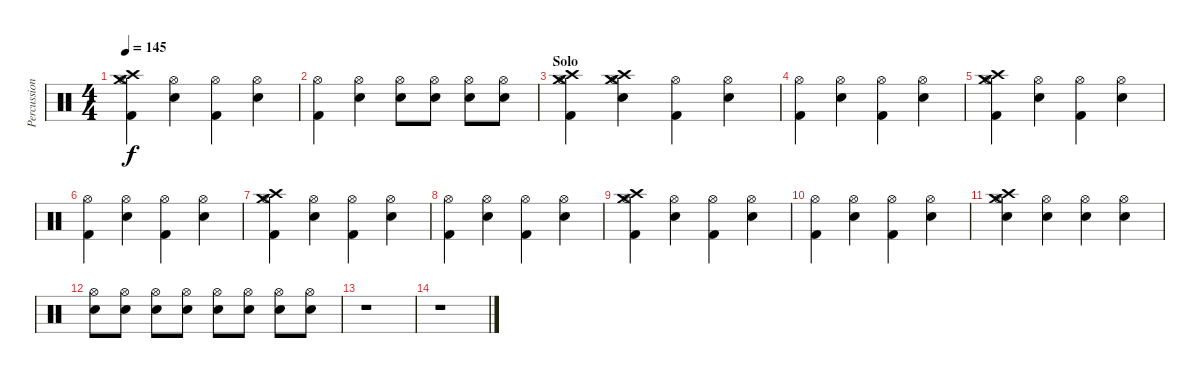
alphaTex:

\track ("Percussions" "Percussion") {instrument percussion}
\staff {score}
\articulation defaults
\ts (4 4)
\tempo 145
\clef neutral
\ks c
("Kick (hit) 2" "Hi-Hat (open)" "Crash medium (hit)" "Crash high (hit)").4{dy f} ("Snare (hit) 2" "Hi-Hat (open)").4 ("Kick (hit) 2" "Hi-Hat (open)").4 ("Snare (hit) 2" "Hi-Hat (open)").4 |
("Kick (hit) 2" "Hi-Hat (open)").4 ("Snare (hit) 2" "Hi-Hat (open)").4 ("Snare (hit) 2" "Hi-Hat (open)").8 ("Snare (hit) 2" "Hi-Hat (open)").8 ("Snare (hit) 2" "Hi-Hat (open)").8 ("Snare (hit) 2" "Hi-Hat (open)").8 |
\section ("" "Solo")
("Kick (hit) 2" "Hi-Hat (open)" "Crash medium (hit)" "Crash high (hit)").4 ("Snare (hit) 2" "Hi-Hat (open)" "Crash medium (hit)" "Crash high (hit)").4 ("Kick (hit) 2" "Hi-Hat (open)").4 ("Snare (hit) 2" "Hi-Hat (open)").4 |
("Kick (hit) 2" "Hi-Hat (open)").4 ("Snare (hit) 2" "Hi-Hat (open)").4 ("Kick (hit) 2" "Hi-Hat (open)").4 ("Snare (hit) 2" "Hi-Hat (open)").4 |
("Kick (hit) 2" "Hi-Hat (open)" "Crash medium (hit)" "Crash high (hit)").4 ("Snare (hit) 2" "Hi-Hat (open)").4 ("Kick (hit) 2" "Hi-Hat (open)").4 ("Snare (hit) 2" "Hi-Hat (open)").4 |
("Kick (hit) 2" "Hi-Hat (open)").4 ("Snare (hit) 2" "Hi-Hat (open)").4 ("Kick (hit) 2" "Hi-Hat (open)").4 ("Snare (hit) 2" "Hi-Hat (open)").4 |
("Kick (hit) 2" "Hi-Hat (open)" "Crash medium (hit)" "Crash high (hit)").4 ("Snare (hit) 2" "Hi-Hat (open)").4 ("Kick (hit) 2" "Hi-Hat (open)").4 ("Snare (hit) 2" "Hi-Hat (open)").4 |
("Kick (hit) 2" "Hi-Hat (open)").4 ("Snare (hit) 2" "Hi-Hat (open)").4 ("Kick (hit) 2" "Hi-Hat (open)").4 ("Snare (hit) 2" "Hi-Hat (open)").4 |
("Kick (hit) 2" "Hi-Hat (open)" "Crash medium (hit)" "Crash high (hit)").4 ("Snare (hit) 2" "Hi-Hat (open)").4 ("Kick (hit) 2" "Hi-Hat (open)").4 ("Snare (hit) 2" "Hi-Hat (open)").4 |
("Kick (hit) 2" "Hi-Hat (open)").4 ("Snare (hit) 2" "Hi-Hat (open)").4 ("Kick (hit) 2" "Hi-Hat (open)").4 ("Snare (hit) 2" "Hi-Hat (open)").4 |
("Snare (hit) 2" "Hi-Hat (open)" "Crash medium (hit)" "Crash high (hit)").4 ("Snare (hit) 2" "Hi-Hat (open)").4 ("Snare (hit) 2" "Hi-Hat (open)").4 ("Snare (hit) 2" "Hi-Hat (open)").4 |
("Snare (hit) 2" "Hi-Hat (open)").8 ("Snare (hit) 2" "Hi-Hat (open)").8 ("Snare (hit) 2" "Hi-Hat (open)").8 ("Snare (hit) 2" "Hi-Hat (open)").8 ("Snare (hit) 2" "Hi-Hat (open)").8 ("Snare (hit) 2" "Hi-Hat (open)").8 ("Snare (hit) 2" "Hi-Hat (open)").8 ("Snare (hit) 2" "Hi-Hat (open)").8 |
r.1 |
r.1
